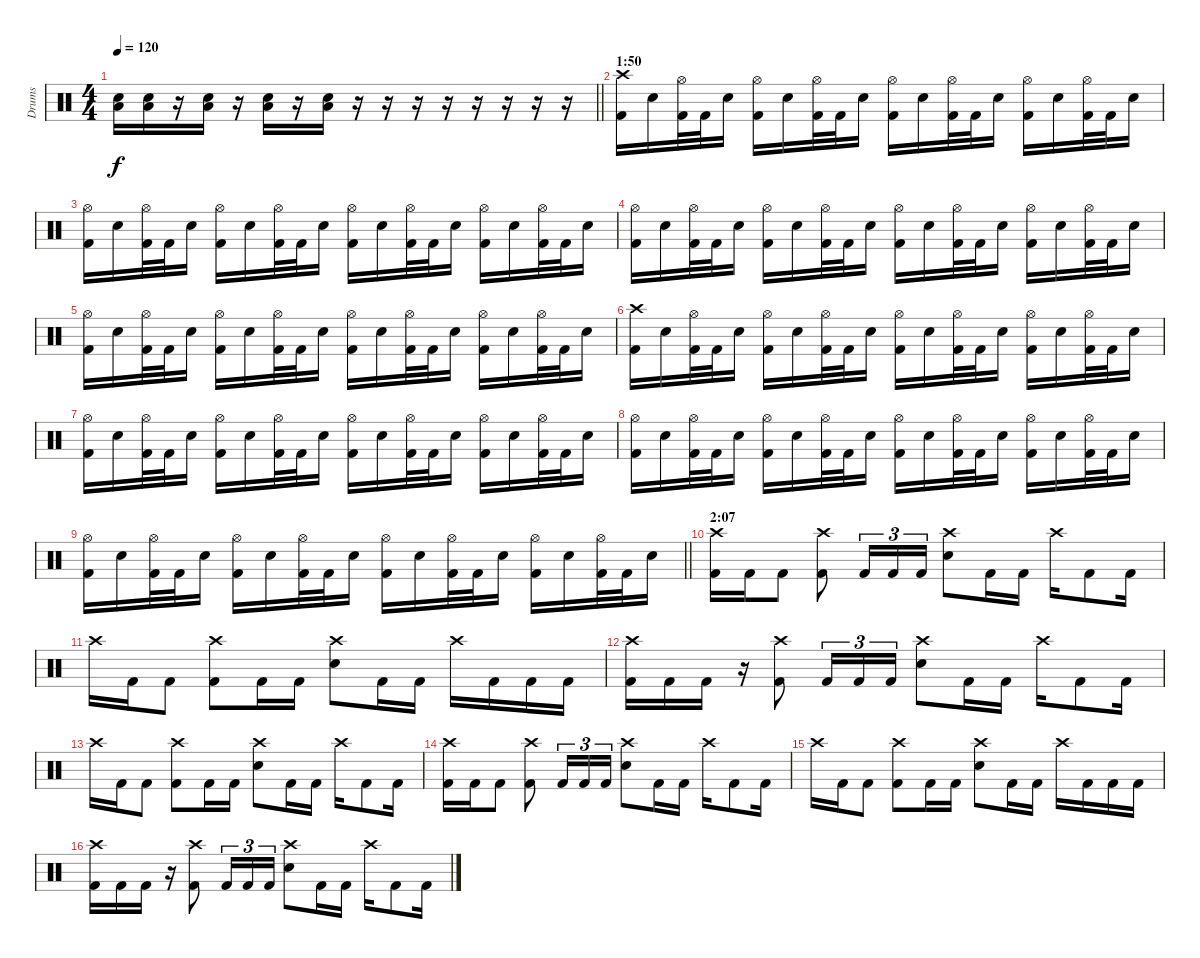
\track ("Drums" "Drums") {instrument percussion}
\staff {score}
\articulation defaults
\ts (4 4)
\tempo 120
\clef neutral
\barLineRight lightlight
\ks c
("Electric Snare (hit)" "Low Floor Tom (hit)").16{dy f} ("Electric Snare (hit)" "Low Floor Tom (hit)").16 r.16 ("Electric Snare (hit)" "Low Floor Tom (hit)").16 r.16 ("Electric Snare (hit)" "Low Floor Tom (hit)").16 r.16 ("Electric Snare (hit)" "Low Floor Tom (hit)").16 r.16 r.16 r.16 r.16 r.16 r.16 r.16 r.16 |
\section ("" "1:50")
("Crash high (hit)" "Kick (hit) 2").16 "Electric Snare (hit)".16 ("Hi-Hat (open)" "Kick (hit) 2").32 "Kick (hit) 2".32 "Electric Snare (hit)".16 ("Hi-Hat (open)" "Kick (hit) 2").16 "Electric Snare (hit)".16 ("Hi-Hat (open)" "Kick (hit) 2").32 "Kick (hit) 2".32 "Electric Snare (hit)".16 ("Hi-Hat (open)" "Kick (hit) 2").16 "Electric Snare (hit)".16 ("Hi-Hat (open)" "Kick (hit) 2").32 "Kick (hit) 2".32 "Electric Snare (hit)".16 ("Hi-Hat (open)" "Kick (hit) 2").16 "Electric Snare (hit)".16 ("Hi-Hat (open)" "Kick (hit) 2").32 "Kick (hit) 2".32 "Electric Snare (hit)".16 |
("Hi-Hat (open)" "Kick (hit) 2").16 "Electric Snare (hit)".16 ("Hi-Hat (open)" "Kick (hit) 2").32 "Kick (hit) 2".32 "Electric Snare (hit)".16 ("Hi-Hat (open)" "Kick (hit) 2").16 "Electric Snare (hit)".16 ("Hi-Hat (open)" "Kick (hit) 2").32 "Kick (hit) 2".32 "Electric Snare (hit)".16 ("Hi-Hat (open)" "Kick (hit) 2").16 "Electric Snare (hit)".16 ("Hi-Hat (open)" "Kick (hit) 2").32 "Kick (hit) 2".32 "Electric Snare (hit)".16 ("Hi-Hat (open)" "Kick (hit) 2").16 "Electric Snare (hit)".16 ("Hi-Hat (open)" "Kick (hit) 2").32 "Kick (hit) 2".32 "Electric Snare (hit)".16 |
("Hi-Hat (open)" "Kick (hit) 2").16 "Electric Snare (hit)".16 ("Hi-Hat (open)" "Kick (hit) 2").32 "Kick (hit) 2".32 "Electric Snare (hit)".16 ("Hi-Hat (open)" "Kick (hit) 2").16 "Electric Snare (hit)".16 ("Hi-Hat (open)" "Kick (hit) 2").32 "Kick (hit) 2".32 "Electric Snare (hit)".16 ("Hi-Hat (open)" "Kick (hit) 2").16 "Electric Snare (hit)".16 ("Hi-Hat (open)" "Kick (hit) 2").32 "Kick (hit) 2".32 "Electric Snare (hit)".16 ("Hi-Hat (open)" "Kick (hit) 2").16 "Electric Snare (hit)".16 ("Hi-Hat (open)" "Kick (hit) 2").32 "Kick (hit) 2".32 "Electric Snare (hit)".16 |
("Hi-Hat (open)" "Kick (hit) 2").16 "Electric Snare (hit)".16 ("Hi-Hat (open)" "Kick (hit) 2").32 "Kick (hit) 2".32 "Electric Snare (hit)".16 ("Hi-Hat (open)" "Kick (hit) 2").16 "Electric Snare (hit)".16 ("Hi-Hat (open)" "Kick (hit) 2").32 "Kick (hit) 2".32 "Electric Snare (hit)".16 ("Hi-Hat (open)" "Kick (hit) 2").16 "Electric Snare (hit)".16 ("Hi-Hat (open)" "Kick (hit) 2").32 "Kick (hit) 2".32 "Electric Snare (hit)".16 ("Hi-Hat (open)" "Kick (hit) 2").16 "Electric Snare (hit)".16 ("Hi-Hat (open)" "Kick (hit) 2").32 "Kick (hit) 2".32 "Electric Snare (hit)".16 |
("Crash high (hit)" "Kick (hit) 2").16 "Electric Snare (hit)".16 ("Hi-Hat (open)" "Kick (hit) 2").32 "Kick (hit) 2".32 "Electric Snare (hit)".16 ("Hi-Hat (open)" "Kick (hit) 2").16 "Electric Snare (hit)".16 ("Hi-Hat (open)" "Kick (hit) 2").32 "Kick (hit) 2".32 "Electric Snare (hit)".16 ("Hi-Hat (open)" "Kick (hit) 2").16 "Electric Snare (hit)".16 ("Hi-Hat (open)" "Kick (hit) 2").32 "Kick (hit) 2".32 "Electric Snare (hit)".16 ("Hi-Hat (open)" "Kick (hit) 2").16 "Electric Snare (hit)".16 ("Hi-Hat (open)" "Kick (hit) 2").32 "Kick (hit) 2".32 "Electric Snare (hit)".16 |
("Hi-Hat (open)" "Kick (hit) 2").16 "Electric Snare (hit)".16 ("Hi-Hat (open)" "Kick (hit) 2").32 "Kick (hit) 2".32 "Electric Snare (hit)".16 ("Hi-Hat (open)" "Kick (hit) 2").16 "Electric Snare (hit)".16 ("Hi-Hat (open)" "Kick (hit) 2").32 "Kick (hit) 2".32 "Electric Snare (hit)".16 ("Hi-Hat (open)" "Kick (hit) 2").16 "Electric Snare (hit)".16 ("Hi-Hat (open)" "Kick (hit) 2").32 "Kick (hit) 2".32 "Electric Snare (hit)".16 ("Hi-Hat (open)" "Kick (hit) 2").16 "Electric Snare (hit)".16 ("Hi-Hat (open)" "Kick (hit) 2").32 "Kick (hit) 2".32 "Electric Snare (hit)".16 |
("Hi-Hat (open)" "Kick (hit) 2").16 "Electric Snare (hit)".16 ("Hi-Hat (open)" "Kick (hit) 2").32 "Kick (hit) 2".32 "Electric Snare (hit)".16 ("Hi-Hat (open)" "Kick (hit) 2").16 "Electric Snare (hit)".16 ("Hi-Hat (open)" "Kick (hit) 2").32 "Kick (hit) 2".32 "Electric Snare (hit)".16 ("Hi-Hat (open)" "Kick (hit) 2").16 "Electric Snare (hit)".16 ("Hi-Hat (open)" "Kick (hit) 2").32 "Kick (hit) 2".32 "Electric Snare (hit)".16 ("Hi-Hat (open)" "Kick (hit) 2").16 "Electric Snare (hit)".16 ("Hi-Hat (open)" "Kick (hit) 2").32 "Kick (hit) 2".32 "Electric Snare (hit)".16 |
\barLineRight lightlight
("Hi-Hat (open)" "Kick (hit) 2").16 "Electric Snare (hit)".16 ("Hi-Hat (open)" "Kick (hit) 2").32 "Kick (hit) 2".32 "Electric Snare (hit)".16 ("Hi-Hat (open)" "Kick (hit) 2").16 "Electric Snare (hit)".16 ("Hi-Hat (open)" "Kick (hit) 2").32 "Kick (hit) 2".32 "Electric Snare (hit)".16 ("Hi-Hat (open)" "Kick (hit) 2").16 "Electric Snare (hit)".16 ("Hi-Hat (open)" "Kick (hit) 2").32 "Kick (hit) 2".32 "Electric Snare (hit)".16 ("Hi-Hat (open)" "Kick (hit) 2").16 "Electric Snare (hit)".16 ("Hi-Hat (open)" "Kick (hit) 2").32 "Kick (hit) 2".32 "Electric Snare (hit)".16 |
\section ("" "2:07")
("Crash high (hit)" "Kick (hit) 2").16 "Kick (hit) 2".16 "Kick (hit) 2".8 ("Crash high (hit)" "Kick (hit) 2").8 "Kick (hit) 2".16{tu (3 2)} "Kick (hit) 2".16{tu (3 2)} "Kick (hit) 2".16{tu (3 2)} ("Crash high (hit)" "Electric Snare (hit)").8 "Kick (hit) 2".16 "Kick (hit) 2".16 "Crash high (hit)".16 "Kick (hit) 2".8 "Kick (hit) 2".16 |
"Crash high (hit)".16 "Kick (hit) 2".16 "Kick (hit) 2".8 ("Crash high (hit)" "Kick (hit) 2").8 "Kick (hit) 2".16 "Kick (hit) 2".16 ("Crash high (hit)" "Electric Snare (hit)").8 "Kick (hit) 2".16 "Kick (hit) 2".16 "Crash high (hit)".16 "Kick (hit) 2".16 "Kick (hit) 2".16 "Kick (hit) 2".16 |
("Crash high (hit)" "Kick (hit) 2").16 "Kick (hit) 2".16 "Kick (hit) 2".16 r.16 ("Crash high (hit)" "Kick (hit) 2").8 "Kick (hit) 2".16{tu (3 2)} "Kick (hit) 2".16{tu (3 2)} "Kick (hit) 2".16{tu (3 2)} ("Crash high (hit)" "Electric Snare (hit)").8 "Kick (hit) 2".16 "Kick (hit) 2".16 "Crash high (hit)".16 "Kick (hit) 2".8 "Kick (hit) 2".16 |
"Crash high (hit)".16 "Kick (hit) 2".16 "Kick (hit) 2".8 ("Crash high (hit)" "Kick (hit) 2").8 "Kick (hit) 2".16 "Kick (hit) 2".16 ("Crash high (hit)" "Electric Snare (hit)").8 "Kick (hit) 2".16 "Kick (hit) 2".16 "Crash high (hit)".16 "Kick (hit) 2".8 "Kick (hit) 2".16 |
("Crash high (hit)" "Kick (hit) 2").16 "Kick (hit) 2".16 "Kick (hit) 2".8 ("Crash high (hit)" "Kick (hit) 2").8 "Kick (hit) 2".16{tu (3 2)} "Kick (hit) 2".16{tu (3 2)} "Kick (hit) 2".16{tu (3 2)} ("Crash high (hit)" "Electric Snare (hit)").8 "Kick (hit) 2".16 "Kick (hit) 2".16 "Crash high (hit)".16 "Kick (hit) 2".8 "Kick (hit) 2".16 |
"Crash high (hit)".16 "Kick (hit) 2".16 "Kick (hit) 2".8 ("Crash high (hit)" "Kick (hit) 2").8 "Kick (hit) 2".16 "Kick (hit) 2".16 ("Crash high (hit)" "Electric Snare (hit)").8 "Kick (hit) 2".16 "Kick (hit) 2".16 "Crash high (hit)".16 "Kick (hit) 2".16 "Kick (hit) 2".16 "Kick (hit) 2".16 |
("Crash high (hit)" "Kick (hit) 2").16 "Kick (hit) 2".16 "Kick (hit) 2".16 r.16 ("Crash high (hit)" "Kick (hit) 2").8 "Kick (hit) 2".16{tu (3 2)} "Kick (hit) 2".16{tu (3 2)} "Kick (hit) 2".16{tu (3 2)} ("Crash high (hit)" "Electric Snare (hit)").8 "Kick (hit) 2".16 "Kick (hit) 2".16 "Crash high (hit)".16 "Kick (hit) 2".8 "Kick (hit) 2".16
